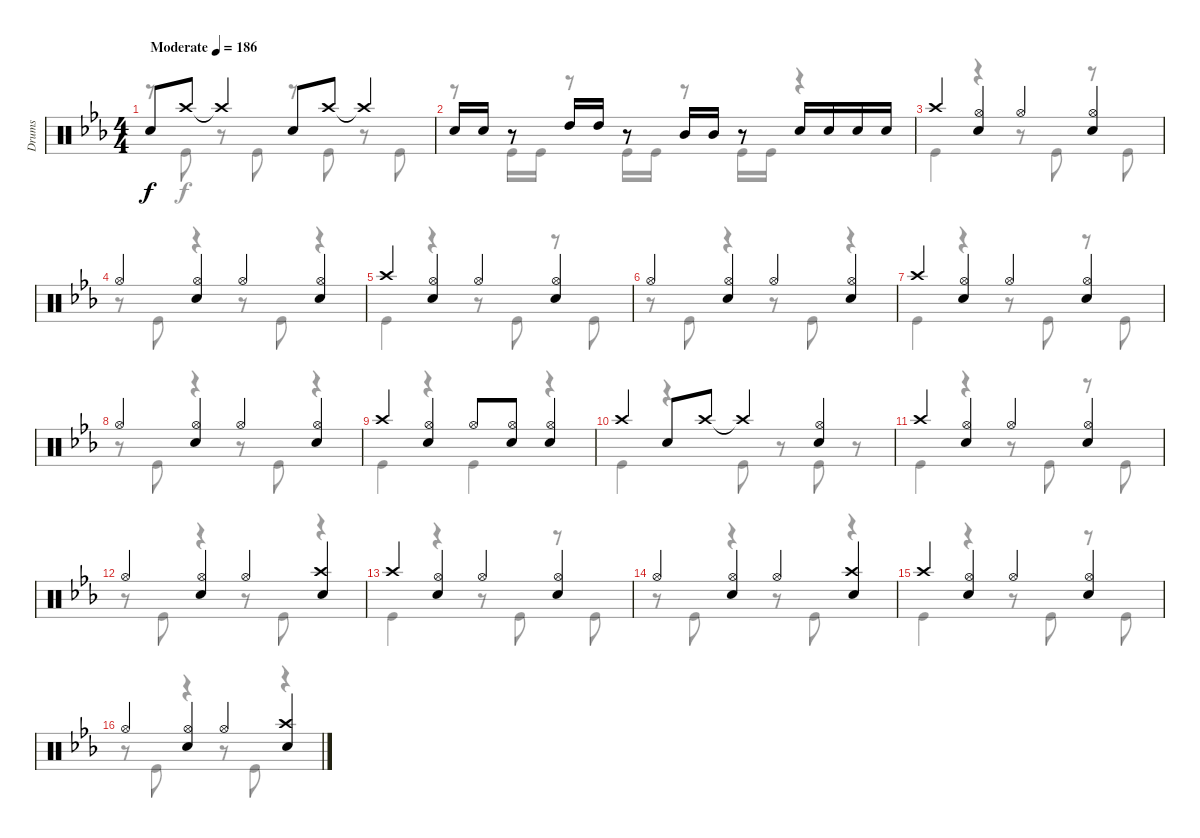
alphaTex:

\track ("Drums" "Drums") {instrument percussion}
\staff {score}
\articulation defaults
\voice
\ts (4 4)
\tempo (186 "Moderate")
\clef neutral
\ks eb "Snare (hit) 2".8{dy f beam Up} "Crash high (hit)".8{beam Up} "Crash high (hit)"{t}.4{beam Up} "Snare (hit) 2".8{beam Up} "Crash high (hit)".8{beam Up} "Crash high (hit)"{t}.4{beam Up}
|
"Snare (hit) 2".16{beam Up} "Snare (hit) 2".16{beam Up} r.8 "High Tom (hit)".16{beam Up} "High Tom (hit)".16{beam Up} r.8 "Mid Tom (hit)".16{beam Up} "Mid Tom (hit)".16{beam Up} r.8 "Snare (hit) 2".16{beam Up} "Snare (hit) 2".16{beam Up} "Snare (hit) 2".16{beam Up} "Snare (hit) 2".16{beam Up} |
"Crash high (hit)".4{beam Up} ("Hi-Hat (open)" "Snare (hit) 2").4{beam Up} "Hi-Hat (open)".4{beam Up} ("Hi-Hat (open)" "Snare (hit) 2").4{beam Up} |
"Hi-Hat (open)".4{beam Up} ("Snare (hit) 2" "Hi-Hat (open)").4{beam Up} "Hi-Hat (open)".4{beam Up} ("Hi-Hat (open)" "Snare (hit) 2").4{beam Up} |
"Crash high (hit)".4{beam Up} ("Hi-Hat (open)" "Snare (hit) 2").4{beam Up} "Hi-Hat (open)".4{beam Up} ("Hi-Hat (open)" "Snare (hit) 2").4{beam Up} |
"Hi-Hat (open)".4{beam Up} ("Snare (hit) 2" "Hi-Hat (open)").4{beam Up} "Hi-Hat (open)".4{beam Up} ("Hi-Hat (open)" "Snare (hit) 2").4{beam Up} |
"Crash high (hit)".4{beam Up} ("Hi-Hat (open)" "Snare (hit) 2").4{beam Up} "Hi-Hat (open)".4{beam Up} ("Hi-Hat (open)" "Snare (hit) 2").4{beam Up} |
"Hi-Hat (open)".4{beam Up} ("Snare (hit) 2" "Hi-Hat (open)").4{beam Up} "Hi-Hat (open)".4{beam Up} ("Hi-Hat (open)" "Snare (hit) 2").4{beam Up} |
"Crash high (hit)".4{beam Up} ("Hi-Hat (open)" "Snare (hit) 2").4{beam Up} "Hi-Hat (open)".8{beam Up} ("Hi-Hat (open)" "Snare (hit) 2").8{beam Up} ("Hi-Hat (open)" "Snare (hit) 2").4{beam Up} |
"Crash high (hit)".4{beam Up} "Snare (hit) 2".8{beam Up} "Crash high (hit)".8{beam Up} "Crash high (hit)"{t}.4{beam Up} ("Hi-Hat (open)" "Snare (hit) 2").4{beam Up} |
"Crash high (hit)".4{beam Up} ("Hi-Hat (open)" "Snare (hit) 2").4{beam Up} "Hi-Hat (open)".4{beam Up} ("Hi-Hat (open)" "Snare (hit) 2").4{beam Up} |
"Hi-Hat (open)".4{beam Up} ("Snare (hit) 2" "Hi-Hat (open)").4{beam Up} "Hi-Hat (open)".4{beam Up} ("Crash high (hit)" "Snare (hit) 2").4{beam Up} |
"Crash high (hit)".4{beam Up} ("Hi-Hat (open)" "Snare (hit) 2").4{beam Up} "Hi-Hat (open)".4{beam Up} ("Hi-Hat (open)" "Snare (hit) 2").4{beam Up} |
"Hi-Hat (open)".4{beam Up} ("Snare (hit) 2" "Hi-Hat (open)").4{beam Up} "Hi-Hat (open)".4{beam Up} ("Crash high (hit)" "Snare (hit) 2").4{beam Up} |
"Crash high (hit)".4{beam Up} ("Hi-Hat (open)" "Snare (hit) 2").4{beam Up} "Hi-Hat (open)".4{beam Up} ("Hi-Hat (open)" "Snare (hit) 2").4{beam Up} |
"Hi-Hat (open)".4{beam Up} ("Snare (hit) 2" "Hi-Hat (open)").4{beam Up} "Hi-Hat (open)".4{beam Up} ("Crash high (hit)" "Snare (hit) 2").4{beam Up}
\voice
\clef neutral
\ottava regular
\simile none
\ks eb
r.8{dy f} "Kick (hit)".8 r.8 "Kick (hit)".8 r.8 "Kick (hit)".8 r.8 "Kick (hit)".8 |
r.8 "Kick (hit)".16 "Kick (hit)".16 r.8 "Kick (hit)".16 "Kick (hit)".16 r.8 "Kick (hit)".16 "Kick (hit)".16 r.4 |
"Kick (hit)".4 r.4 r.8 "Kick (hit)".8 r.8 "Kick (hit)".8 |
r.8 "Kick (hit)".8 r.4 r.8 "Kick (hit)".8 r.4 |
"Kick (hit)".4 r.4 r.8 "Kick (hit)".8 r.8 "Kick (hit)".8 |
r.8 "Kick (hit)".8 r.4 r.8 "Kick (hit)".8 r.4 |
"Kick (hit)".4 r.4 r.8 "Kick (hit)".8 r.8 "Kick (hit)".8 |
r.8 "Kick (hit)".8 r.4 r.8 "Kick (hit)".8 r.4 |
"Kick (hit)".4 r.4 "Kick (hit)".4 r.4 |
"Kick (hit)".4 r.4 "Kick (hit)".8 r.8 "Kick (hit)".8 r.8 |
"Kick (hit)".4 r.4 r.8 "Kick (hit)".8 r.8 "Kick (hit)".8 |
r.8 "Kick (hit)".8 r.4 r.8 "Kick (hit)".8 r.4 |
"Kick (hit)".4 r.4 r.8 "Kick (hit)".8 r.8 "Kick (hit)".8 |
r.8 "Kick (hit)".8 r.4 r.8 "Kick (hit)".8 r.4 |
"Kick (hit)".4 r.4 r.8 "Kick (hit)".8 r.8 "Kick (hit)".8 |
r.8 "Kick (hit)".8 r.4 r.8 "Kick (hit)".8 r.4
